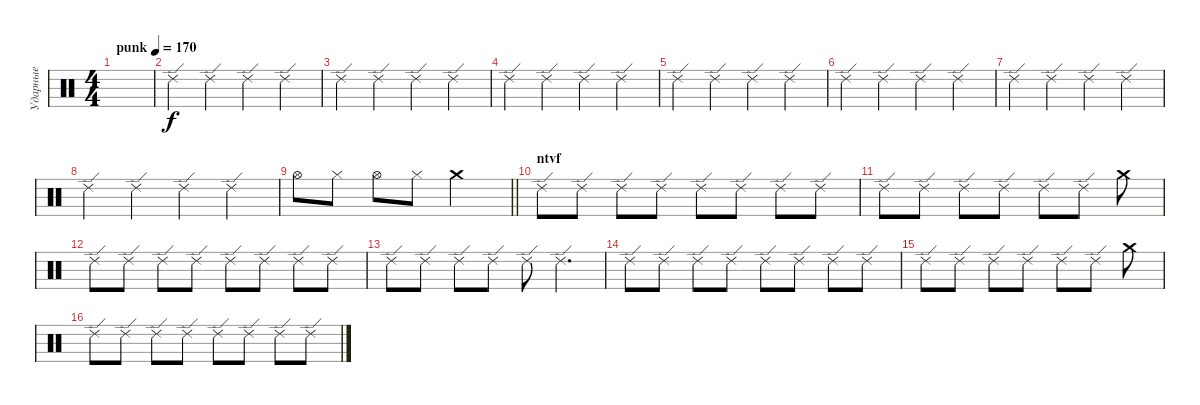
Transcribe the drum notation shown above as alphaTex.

\track ("Ударные" "Ударные") {instrument percussion}
\staff {score}
\articulation defaults
\ts (4 4)
\tempo (170 "punk")
\clef neutral
\ks c
|
"Ride (edge) 2".4 "Ride (edge) 2".4 "Ride (edge) 2".4 "Ride (edge) 2".4 |
"Ride (edge) 2".4 "Ride (edge) 2".4 "Ride (edge) 2".4 "Ride (edge) 2".4 |
"Ride (edge) 2".4 "Ride (edge) 2".4 "Ride (edge) 2".4 "Ride (edge) 2".4 |
"Ride (edge) 2".4 "Ride (edge) 2".4 "Ride (edge) 2".4 "Ride (edge) 2".4 |
"Ride (edge) 2".4 "Ride (edge) 2".4 "Ride (edge) 2".4 "Ride (edge) 2".4 |
"Ride (edge) 2".4 "Ride (edge) 2".4 "Ride (edge) 2".4 "Ride (edge) 2".4 |
"Ride (edge) 2".4 "Ride (edge) 2".4 "Ride (edge) 2".4 "Ride (edge) 2".4 |
\barLineRight lightlight "Hi-Hat (open)".8 "Hi-Hat (closed)".8 "Hi-Hat (open)".8 "Hi-Hat (closed)".8 "Crash medium (hit)".2
|
\section ("" "ntvf")
"Ride (edge) 2".8 "Ride (edge) 2".8 "Ride (edge) 2".8 "Ride (edge) 2".8 "Ride (edge) 2".8 "Ride (edge) 2".8 "Ride (edge) 2".8 "Ride (edge) 2".8 |
"Ride (edge) 2".8 "Ride (edge) 2".8 "Ride (edge) 2".8 "Ride (edge) 2".8 "Ride (edge) 2".8 "Ride (edge) 2".8 "Crash medium (hit)".8 |
"Ride (edge) 2".8 "Ride (edge) 2".8 "Ride (edge) 2".8 "Ride (edge) 2".8 "Ride (edge) 2".8 "Ride (edge) 2".8 "Ride (edge) 2".8 "Ride (edge) 2".8 |
"Ride (edge) 2".8 "Ride (edge) 2".8 "Ride (edge) 2".8 "Ride (edge) 2".8 "Ride (edge) 2".8 "Ride (edge) 2".4{d} |
"Ride (edge) 2".8 "Ride (edge) 2".8 "Ride (edge) 2".8 "Ride (edge) 2".8 "Ride (edge) 2".8 "Ride (edge) 2".8 "Ride (edge) 2".8 "Ride (edge) 2".8 |
"Ride (edge) 2".8 "Ride (edge) 2".8 "Ride (edge) 2".8 "Ride (edge) 2".8 "Ride (edge) 2".8 "Ride (edge) 2".8 "Crash medium (hit)".8 |
"Ride (edge) 2".8 "Ride (edge) 2".8 "Ride (edge) 2".8 "Ride (edge) 2".8 "Ride (edge) 2".8 "Ride (edge) 2".8 "Ride (edge) 2".8 "Ride (edge) 2".8
